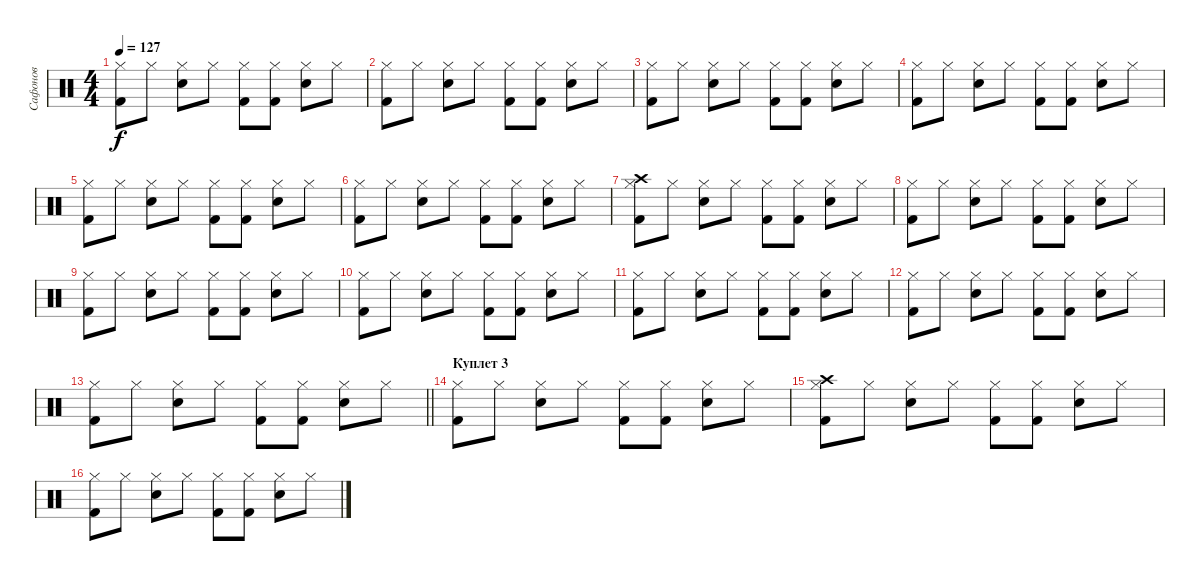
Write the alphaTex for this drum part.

\track ("Сафонов" "Сафонов") {instrument percussion}
\staff {score}
\articulation defaults
\ts (4 4)
\tempo 127
\clef neutral
\ks c
("Hi-Hat (closed)" "Kick (hit) 2").8{dy f} "Hi-Hat (closed)".8 ("Hi-Hat (closed)" "Electric Snare (hit)").8 "Hi-Hat (closed)".8 ("Hi-Hat (closed)" "Kick (hit) 2").8 ("Hi-Hat (closed)" "Kick (hit) 2").8 ("Hi-Hat (closed)" "Electric Snare (hit)").8 "Hi-Hat (closed)".8 |
("Hi-Hat (closed)" "Kick (hit) 2").8 "Hi-Hat (closed)".8 ("Hi-Hat (closed)" "Electric Snare (hit)").8 "Hi-Hat (closed)".8 ("Hi-Hat (closed)" "Kick (hit) 2").8 ("Hi-Hat (closed)" "Kick (hit) 2").8 ("Hi-Hat (closed)" "Electric Snare (hit)").8 "Hi-Hat (closed)".8 |
("Hi-Hat (closed)" "Kick (hit) 2").8 "Hi-Hat (closed)".8 ("Hi-Hat (closed)" "Electric Snare (hit)").8 "Hi-Hat (closed)".8 ("Hi-Hat (closed)" "Kick (hit) 2").8 ("Hi-Hat (closed)" "Kick (hit) 2").8 ("Hi-Hat (closed)" "Electric Snare (hit)").8 "Hi-Hat (closed)".8 |
("Hi-Hat (closed)" "Kick (hit) 2").8 "Hi-Hat (closed)".8 ("Hi-Hat (closed)" "Electric Snare (hit)").8 "Hi-Hat (closed)".8 ("Hi-Hat (closed)" "Kick (hit) 2").8 ("Hi-Hat (closed)" "Kick (hit) 2").8 ("Hi-Hat (closed)" "Electric Snare (hit)").8 "Hi-Hat (closed)".8 |
("Hi-Hat (closed)" "Kick (hit) 2").8 "Hi-Hat (closed)".8 ("Hi-Hat (closed)" "Electric Snare (hit)").8 "Hi-Hat (closed)".8 ("Hi-Hat (closed)" "Kick (hit) 2").8 ("Hi-Hat (closed)" "Kick (hit) 2").8 ("Hi-Hat (closed)" "Electric Snare (hit)").8 "Hi-Hat (closed)".8 |
("Hi-Hat (closed)" "Kick (hit) 2").8 "Hi-Hat (closed)".8 ("Hi-Hat (closed)" "Electric Snare (hit)").8 "Hi-Hat (closed)".8 ("Hi-Hat (closed)" "Kick (hit) 2").8 ("Hi-Hat (closed)" "Kick (hit) 2").8 ("Hi-Hat (closed)" "Electric Snare (hit)").8 "Hi-Hat (closed)".8 |
("Crash high (hit)" "Hi-Hat (closed)" "Kick (hit) 2").8 "Hi-Hat (closed)".8 ("Hi-Hat (closed)" "Electric Snare (hit)").8 "Hi-Hat (closed)".8 ("Hi-Hat (closed)" "Kick (hit) 2").8 ("Hi-Hat (closed)" "Kick (hit) 2").8 ("Hi-Hat (closed)" "Electric Snare (hit)").8 "Hi-Hat (closed)".8 |
("Hi-Hat (closed)" "Kick (hit) 2").8 "Hi-Hat (closed)".8 ("Hi-Hat (closed)" "Electric Snare (hit)").8 "Hi-Hat (closed)".8 ("Hi-Hat (closed)" "Kick (hit) 2").8 ("Hi-Hat (closed)" "Kick (hit) 2").8 ("Hi-Hat (closed)" "Electric Snare (hit)").8 "Hi-Hat (closed)".8 |
("Hi-Hat (closed)" "Kick (hit) 2").8 "Hi-Hat (closed)".8 ("Hi-Hat (closed)" "Electric Snare (hit)").8 "Hi-Hat (closed)".8 ("Hi-Hat (closed)" "Kick (hit) 2").8 ("Hi-Hat (closed)" "Kick (hit) 2").8 ("Hi-Hat (closed)" "Electric Snare (hit)").8 "Hi-Hat (closed)".8 |
("Hi-Hat (closed)" "Kick (hit) 2").8 "Hi-Hat (closed)".8 ("Hi-Hat (closed)" "Electric Snare (hit)").8 "Hi-Hat (closed)".8 ("Hi-Hat (closed)" "Kick (hit) 2").8 ("Hi-Hat (closed)" "Kick (hit) 2").8 ("Hi-Hat (closed)" "Electric Snare (hit)").8 "Hi-Hat (closed)".8 |
("Hi-Hat (closed)" "Kick (hit) 2").8 "Hi-Hat (closed)".8 ("Hi-Hat (closed)" "Electric Snare (hit)").8 "Hi-Hat (closed)".8 ("Hi-Hat (closed)" "Kick (hit) 2").8 ("Hi-Hat (closed)" "Kick (hit) 2").8 ("Hi-Hat (closed)" "Electric Snare (hit)").8 "Hi-Hat (closed)".8 |
("Hi-Hat (closed)" "Kick (hit) 2").8 "Hi-Hat (closed)".8 ("Hi-Hat (closed)" "Electric Snare (hit)").8 "Hi-Hat (closed)".8 ("Hi-Hat (closed)" "Kick (hit) 2").8 ("Hi-Hat (closed)" "Kick (hit) 2").8 ("Hi-Hat (closed)" "Electric Snare (hit)").8 "Hi-Hat (closed)".8 |
\barLineRight lightlight
("Hi-Hat (closed)" "Kick (hit) 2").8 "Hi-Hat (closed)".8 ("Hi-Hat (closed)" "Electric Snare (hit)").8 "Hi-Hat (closed)".8 ("Hi-Hat (closed)" "Kick (hit) 2").8 ("Hi-Hat (closed)" "Kick (hit) 2").8 ("Hi-Hat (closed)" "Electric Snare (hit)").8 "Hi-Hat (closed)".8 |
\section ("" "Куплет 3")
("Hi-Hat (closed)" "Kick (hit) 2").8 "Hi-Hat (closed)".8 ("Hi-Hat (closed)" "Electric Snare (hit)").8 "Hi-Hat (closed)".8 ("Hi-Hat (closed)" "Kick (hit) 2").8 ("Hi-Hat (closed)" "Kick (hit) 2").8 ("Hi-Hat (closed)" "Electric Snare (hit)").8 "Hi-Hat (closed)".8 |
("Crash high (hit)" "Hi-Hat (closed)" "Kick (hit) 2").8 "Hi-Hat (closed)".8 ("Hi-Hat (closed)" "Electric Snare (hit)").8 "Hi-Hat (closed)".8 ("Hi-Hat (closed)" "Kick (hit) 2").8 ("Hi-Hat (closed)" "Kick (hit) 2").8 ("Hi-Hat (closed)" "Electric Snare (hit)").8 "Hi-Hat (closed)".8 |
("Hi-Hat (closed)" "Kick (hit) 2").8 "Hi-Hat (closed)".8 ("Hi-Hat (closed)" "Electric Snare (hit)").8 "Hi-Hat (closed)".8 ("Hi-Hat (closed)" "Kick (hit) 2").8 ("Hi-Hat (closed)" "Kick (hit) 2").8 ("Hi-Hat (closed)" "Electric Snare (hit)").8 "Hi-Hat (closed)".8
